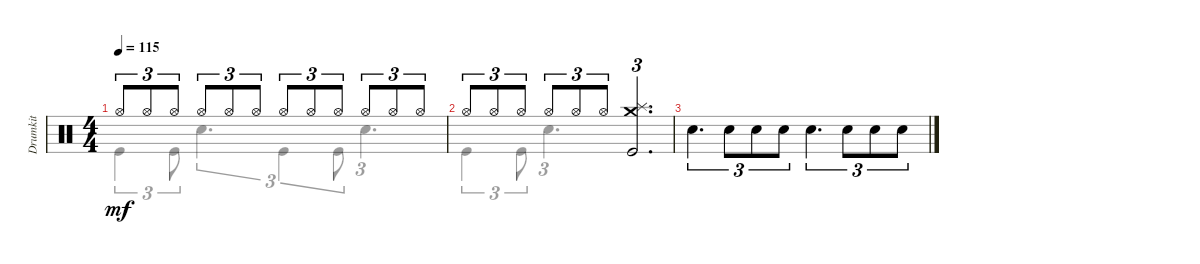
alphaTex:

\track ("Drumkit" "Drumkit") {instrument percussion}
\staff {score}
\articulation defaults
\voice
\ts (4 4)
\tempo 115
\clef neutral
\ks c "Hi-Hat (open)".8{tu (3 2) dy mf} "Hi-Hat (open)".8{tu (3 2)} "Hi-Hat (open)".8{tu (3 2)} "Hi-Hat (open)".8{tu (3 2)} "Hi-Hat (open)".8{tu (3 2)} "Hi-Hat (open)".8{tu (3 2)} "Hi-Hat (open)".8{tu (3 2)} "Hi-Hat (open)".8{tu (3 2)} "Hi-Hat (open)".8{tu (3 2)} "Hi-Hat (open)".8{tu (3 2)} "Hi-Hat (open)".8{tu (3 2)} "Hi-Hat (open)".8{tu (3 2)}
|
"Hi-Hat (open)".8{tu (3 2)} "Hi-Hat (open)".8{tu (3 2)} "Hi-Hat (open)".8{tu (3 2)} "Hi-Hat (open)".8{tu (3 2)} "Hi-Hat (open)".8{tu (3 2)} "Hi-Hat (open)".8{tu (3 2)} ("Kick (hit)" "Splash (hit)" "Crash medium (hit)").2{d tu (3 2)} |
"Snare (hit) 2".4{d tu (3 2)} "Snare (hit) 2".8{tu (3 2)} "Snare (hit) 2".8{tu (3 2)} "Snare (hit) 2".8{tu (3 2)} "Snare (hit) 2".4{d tu (3 2)} "Snare (hit) 2".8{tu (3 2)} "Snare (hit) 2".8{tu (3 2)} "Snare (hit) 2".8{tu (3 2)}
\voice
\clef neutral
\ottava regular
\simile none
\ks c "Kick (hit)".4{tu (3 2) dy mf} "Kick (hit)".8{tu (3 2)} "Snare (hit) 2".4{d tu (3 2)} "Kick (hit)".4{tu (3 2)} "Kick (hit)".8{tu (3 2)} "Snare (hit) 2".4{d tu (3 2)}
|
"Kick (hit)".4{tu (3 2)} "Kick (hit)".8{tu (3 2)} "Snare (hit) 2".4{d tu (3 2)} |
